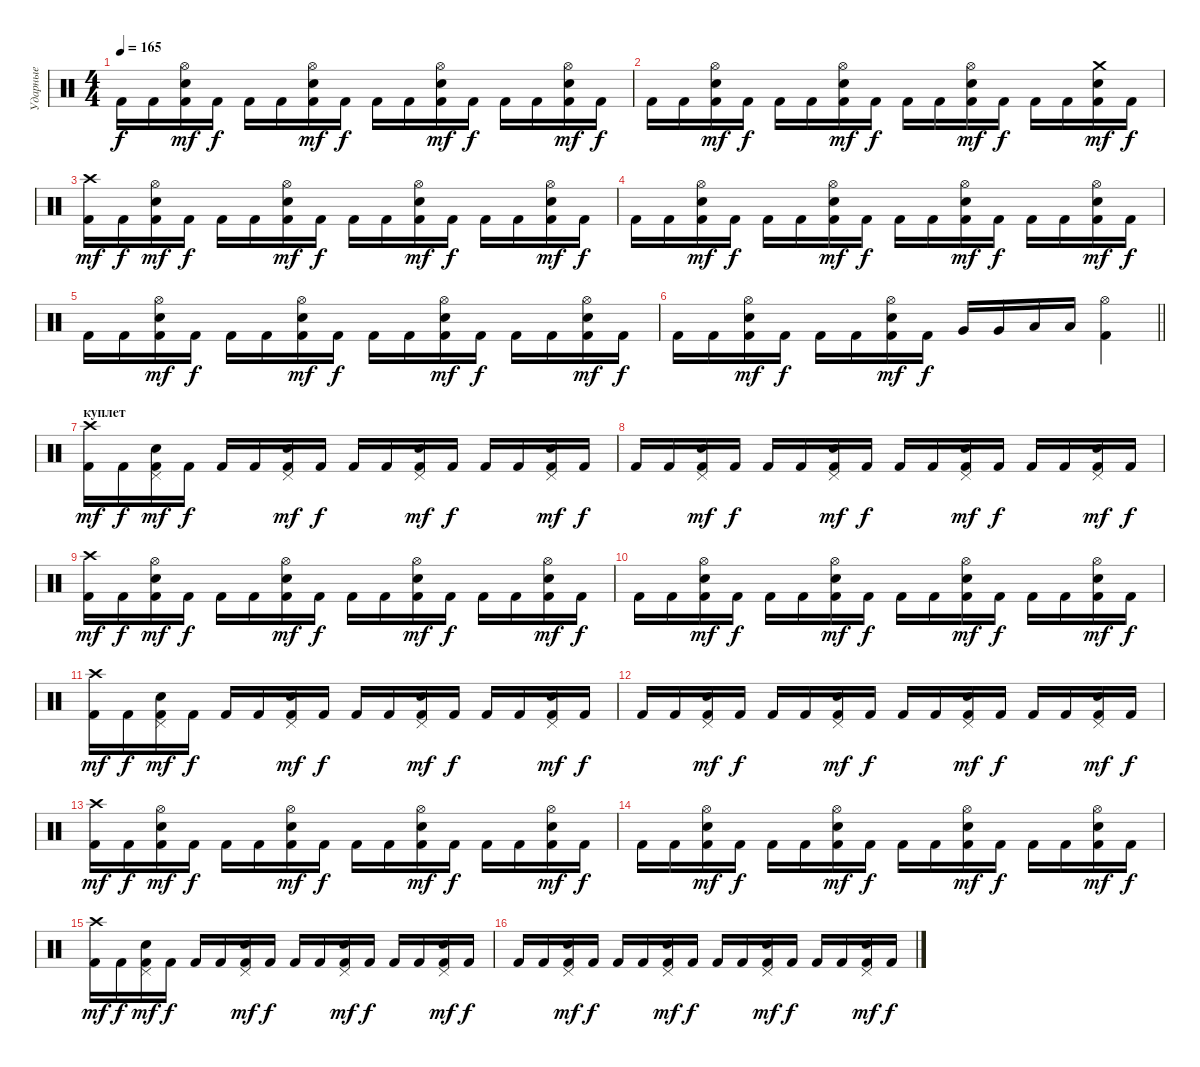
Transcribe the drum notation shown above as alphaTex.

\track ("Ударные" "Ударные") {instrument percussion}
\staff {score}
\articulation defaults
\ts (4 4)
\tempo 165
\clef neutral
\ks c "Kick (hit) 2".16{dy f} "Kick (hit) 2".16
("Kick (hit) 2" "Electric Snare (hit)" "Hi-Hat (open)").16{dy mf} "Kick (hit) 2".16{dy f} "Kick (hit) 2".16 "Kick (hit) 2".16 ("Kick (hit) 2" "Electric Snare (hit)" "Hi-Hat (open)").16{dy mf} "Kick (hit) 2".16{dy f} "Kick (hit) 2".16 "Kick (hit) 2".16 ("Kick (hit) 2" "Electric Snare (hit)" "Hi-Hat (open)").16{dy mf} "Kick (hit) 2".16{dy f} "Kick (hit) 2".16 "Kick (hit) 2".16 ("Kick (hit) 2" "Electric Snare (hit)" "Hi-Hat (open)").16{dy mf} "Kick (hit) 2".16{dy f} |
"Kick (hit) 2".16 "Kick (hit) 2".16 ("Kick (hit) 2" "Electric Snare (hit)" "Hi-Hat (open)").16{dy mf} "Kick (hit) 2".16{dy f} "Kick (hit) 2".16 "Kick (hit) 2".16 ("Kick (hit) 2" "Electric Snare (hit)" "Hi-Hat (open)").16{dy mf} "Kick (hit) 2".16{dy f} "Kick (hit) 2".16 "Kick (hit) 2".16 ("Kick (hit) 2" "Electric Snare (hit)" "Hi-Hat (open)").16{dy mf} "Kick (hit) 2".16{dy f} "Kick (hit) 2".16 "Kick (hit) 2".16 ("Kick (hit) 2" "Electric Snare (hit)" "Crash medium (hit)").16{dy mf} "Kick (hit) 2".16{dy f} |
("Kick (hit) 2" "Crash high (hit)").16{dy mf} "Kick (hit) 2".16{dy f} ("Kick (hit) 2" "Electric Snare (hit)" "Hi-Hat (open)").16{dy mf} "Kick (hit) 2".16{dy f} "Kick (hit) 2".16 "Kick (hit) 2".16 ("Kick (hit) 2" "Electric Snare (hit)" "Hi-Hat (open)").16{dy mf} "Kick (hit) 2".16{dy f} "Kick (hit) 2".16 "Kick (hit) 2".16 ("Kick (hit) 2" "Electric Snare (hit)" "Hi-Hat (open)").16{dy mf} "Kick (hit) 2".16{dy f} "Kick (hit) 2".16 "Kick (hit) 2".16 ("Kick (hit) 2" "Electric Snare (hit)" "Hi-Hat (open)").16{dy mf} "Kick (hit) 2".16{dy f} |
"Kick (hit) 2".16 "Kick (hit) 2".16 ("Kick (hit) 2" "Electric Snare (hit)" "Hi-Hat (open)").16{dy mf} "Kick (hit) 2".16{dy f} "Kick (hit) 2".16 "Kick (hit) 2".16 ("Kick (hit) 2" "Electric Snare (hit)" "Hi-Hat (open)").16{dy mf} "Kick (hit) 2".16{dy f} "Kick (hit) 2".16 "Kick (hit) 2".16 ("Kick (hit) 2" "Electric Snare (hit)" "Hi-Hat (open)").16{dy mf} "Kick (hit) 2".16{dy f} "Kick (hit) 2".16 "Kick (hit) 2".16 ("Kick (hit) 2" "Electric Snare (hit)" "Hi-Hat (open)").16{dy mf} "Kick (hit) 2".16{dy f} |
"Kick (hit) 2".16 "Kick (hit) 2".16 ("Kick (hit) 2" "Electric Snare (hit)" "Hi-Hat (open)").16{dy mf} "Kick (hit) 2".16{dy f} "Kick (hit) 2".16 "Kick (hit) 2".16 ("Kick (hit) 2" "Electric Snare (hit)" "Hi-Hat (open)").16{dy mf} "Kick (hit) 2".16{dy f} "Kick (hit) 2".16 "Kick (hit) 2".16 ("Kick (hit) 2" "Electric Snare (hit)" "Hi-Hat (open)").16{dy mf} "Kick (hit) 2".16{dy f} "Kick (hit) 2".16 "Kick (hit) 2".16 ("Kick (hit) 2" "Electric Snare (hit)" "Hi-Hat (open)").16{dy mf} "Kick (hit) 2".16{dy f} |
\barLineRight lightlight "Kick (hit) 2".16 "Kick (hit) 2".16
("Kick (hit) 2" "Electric Snare (hit)" "Hi-Hat (open)").16{dy mf} "Kick (hit) 2".16{dy f} "Kick (hit) 2".16 "Kick (hit) 2".16 ("Kick (hit) 2" "Electric Snare (hit)" "Hi-Hat (open)").16{dy mf} "Kick (hit) 2".16{dy f} "Very Low Tom (hit)".16 "Very Low Tom (hit)".16 "Low Floor Tom (hit)".16 "Low Floor Tom (hit)".16 ("Kick (hit) 2" "Hi-Hat (open)").4 |
\section ("" "куплет")
("Kick (hit) 2" "Crash high (hit)").16{dy mf} "Kick (hit) 2".16{dy f} ("Kick (hit) 2" "Electric Snare (hit)" "Pedal Hi-Hat (hit)").16{dy mf} "Kick (hit) 2".16{dy f} "Kick (hit) 2".16 "Kick (hit) 2".16 ("Kick (hit) 2" "Electric Snare (hit)" "Pedal Hi-Hat (hit)").16{dy mf} "Kick (hit) 2".16{dy f} "Kick (hit) 2".16 "Kick (hit) 2".16 ("Kick (hit) 2" "Electric Snare (hit)" "Pedal Hi-Hat (hit)").16{dy mf} "Kick (hit) 2".16{dy f} "Kick (hit) 2".16 "Kick (hit) 2".16 ("Kick (hit) 2" "Electric Snare (hit)" "Pedal Hi-Hat (hit)").16{dy mf} "Kick (hit) 2".16{dy f} |
"Kick (hit) 2".16 "Kick (hit) 2".16 ("Kick (hit) 2" "Electric Snare (hit)" "Pedal Hi-Hat (hit)").16{dy mf} "Kick (hit) 2".16{dy f} "Kick (hit) 2".16 "Kick (hit) 2".16 ("Kick (hit) 2" "Electric Snare (hit)" "Pedal Hi-Hat (hit)").16{dy mf} "Kick (hit) 2".16{dy f} "Kick (hit) 2".16 "Kick (hit) 2".16 ("Kick (hit) 2" "Electric Snare (hit)" "Pedal Hi-Hat (hit)").16{dy mf} "Kick (hit) 2".16{dy f} "Kick (hit) 2".16 "Kick (hit) 2".16 ("Kick (hit) 2" "Electric Snare (hit)" "Pedal Hi-Hat (hit)").16{dy mf} "Kick (hit) 2".16{dy f} |
("Kick (hit) 2" "Crash high (hit)").16{dy mf} "Kick (hit) 2".16{dy f} ("Kick (hit) 2" "Electric Snare (hit)" "Hi-Hat (open)").16{dy mf} "Kick (hit) 2".16{dy f} "Kick (hit) 2".16 "Kick (hit) 2".16 ("Kick (hit) 2" "Electric Snare (hit)" "Hi-Hat (open)").16{dy mf} "Kick (hit) 2".16{dy f} "Kick (hit) 2".16 "Kick (hit) 2".16 ("Kick (hit) 2" "Electric Snare (hit)" "Hi-Hat (open)").16{dy mf} "Kick (hit) 2".16{dy f} "Kick (hit) 2".16 "Kick (hit) 2".16 ("Kick (hit) 2" "Electric Snare (hit)" "Hi-Hat (open)").16{dy mf} "Kick (hit) 2".16{dy f} |
"Kick (hit) 2".16 "Kick (hit) 2".16 ("Kick (hit) 2" "Electric Snare (hit)" "Hi-Hat (open)").16{dy mf} "Kick (hit) 2".16{dy f} "Kick (hit) 2".16 "Kick (hit) 2".16 ("Kick (hit) 2" "Electric Snare (hit)" "Hi-Hat (open)").16{dy mf} "Kick (hit) 2".16{dy f} "Kick (hit) 2".16 "Kick (hit) 2".16 ("Kick (hit) 2" "Electric Snare (hit)" "Hi-Hat (open)").16{dy mf} "Kick (hit) 2".16{dy f} "Kick (hit) 2".16 "Kick (hit) 2".16 ("Kick (hit) 2" "Electric Snare (hit)" "Hi-Hat (open)").16{dy mf} "Kick (hit) 2".16{dy f} |
("Kick (hit) 2" "Crash high (hit)").16{dy mf} "Kick (hit) 2".16{dy f} ("Kick (hit) 2" "Electric Snare (hit)" "Pedal Hi-Hat (hit)").16{dy mf} "Kick (hit) 2".16{dy f} "Kick (hit) 2".16 "Kick (hit) 2".16 ("Kick (hit) 2" "Electric Snare (hit)" "Pedal Hi-Hat (hit)").16{dy mf} "Kick (hit) 2".16{dy f} "Kick (hit) 2".16 "Kick (hit) 2".16 ("Kick (hit) 2" "Electric Snare (hit)" "Pedal Hi-Hat (hit)").16{dy mf} "Kick (hit) 2".16{dy f} "Kick (hit) 2".16 "Kick (hit) 2".16 ("Kick (hit) 2" "Electric Snare (hit)" "Pedal Hi-Hat (hit)").16{dy mf} "Kick (hit) 2".16{dy f} |
"Kick (hit) 2".16 "Kick (hit) 2".16 ("Kick (hit) 2" "Electric Snare (hit)" "Pedal Hi-Hat (hit)").16{dy mf} "Kick (hit) 2".16{dy f} "Kick (hit) 2".16 "Kick (hit) 2".16 ("Kick (hit) 2" "Electric Snare (hit)" "Pedal Hi-Hat (hit)").16{dy mf} "Kick (hit) 2".16{dy f} "Kick (hit) 2".16 "Kick (hit) 2".16 ("Kick (hit) 2" "Electric Snare (hit)" "Pedal Hi-Hat (hit)").16{dy mf} "Kick (hit) 2".16{dy f} "Kick (hit) 2".16 "Kick (hit) 2".16 ("Kick (hit) 2" "Electric Snare (hit)" "Pedal Hi-Hat (hit)").16{dy mf} "Kick (hit) 2".16{dy f} |
("Kick (hit) 2" "Crash high (hit)").16{dy mf} "Kick (hit) 2".16{dy f} ("Kick (hit) 2" "Electric Snare (hit)" "Hi-Hat (open)").16{dy mf} "Kick (hit) 2".16{dy f} "Kick (hit) 2".16 "Kick (hit) 2".16 ("Kick (hit) 2" "Electric Snare (hit)" "Hi-Hat (open)").16{dy mf} "Kick (hit) 2".16{dy f} "Kick (hit) 2".16 "Kick (hit) 2".16 ("Kick (hit) 2" "Electric Snare (hit)" "Hi-Hat (open)").16{dy mf} "Kick (hit) 2".16{dy f} "Kick (hit) 2".16 "Kick (hit) 2".16 ("Kick (hit) 2" "Electric Snare (hit)" "Hi-Hat (open)").16{dy mf} "Kick (hit) 2".16{dy f} |
"Kick (hit) 2".16 "Kick (hit) 2".16 ("Kick (hit) 2" "Electric Snare (hit)" "Hi-Hat (open)").16{dy mf} "Kick (hit) 2".16{dy f} "Kick (hit) 2".16 "Kick (hit) 2".16 ("Kick (hit) 2" "Electric Snare (hit)" "Hi-Hat (open)").16{dy mf} "Kick (hit) 2".16{dy f} "Kick (hit) 2".16 "Kick (hit) 2".16 ("Kick (hit) 2" "Electric Snare (hit)" "Hi-Hat (open)").16{dy mf} "Kick (hit) 2".16{dy f} "Kick (hit) 2".16 "Kick (hit) 2".16 ("Kick (hit) 2" "Electric Snare (hit)" "Hi-Hat (open)").16{dy mf} "Kick (hit) 2".16{dy f} |
("Kick (hit) 2" "Crash high (hit)").16{dy mf} "Kick (hit) 2".16{dy f} ("Kick (hit) 2" "Electric Snare (hit)" "Pedal Hi-Hat (hit)").16{dy mf} "Kick (hit) 2".16{dy f} "Kick (hit) 2".16 "Kick (hit) 2".16 ("Kick (hit) 2" "Electric Snare (hit)" "Pedal Hi-Hat (hit)").16{dy mf} "Kick (hit) 2".16{dy f} "Kick (hit) 2".16 "Kick (hit) 2".16 ("Kick (hit) 2" "Electric Snare (hit)" "Pedal Hi-Hat (hit)").16{dy mf} "Kick (hit) 2".16{dy f} "Kick (hit) 2".16 "Kick (hit) 2".16 ("Kick (hit) 2" "Electric Snare (hit)" "Pedal Hi-Hat (hit)").16{dy mf} "Kick (hit) 2".16{dy f} |
"Kick (hit) 2".16 "Kick (hit) 2".16 ("Kick (hit) 2" "Electric Snare (hit)" "Pedal Hi-Hat (hit)").16{dy mf} "Kick (hit) 2".16{dy f} "Kick (hit) 2".16 "Kick (hit) 2".16 ("Kick (hit) 2" "Electric Snare (hit)" "Pedal Hi-Hat (hit)").16{dy mf} "Kick (hit) 2".16{dy f} "Kick (hit) 2".16 "Kick (hit) 2".16 ("Kick (hit) 2" "Electric Snare (hit)" "Pedal Hi-Hat (hit)").16{dy mf} "Kick (hit) 2".16{dy f} "Kick (hit) 2".16 "Kick (hit) 2".16 ("Kick (hit) 2" "Electric Snare (hit)" "Pedal Hi-Hat (hit)").16{dy mf} "Kick (hit) 2".16{dy f}
